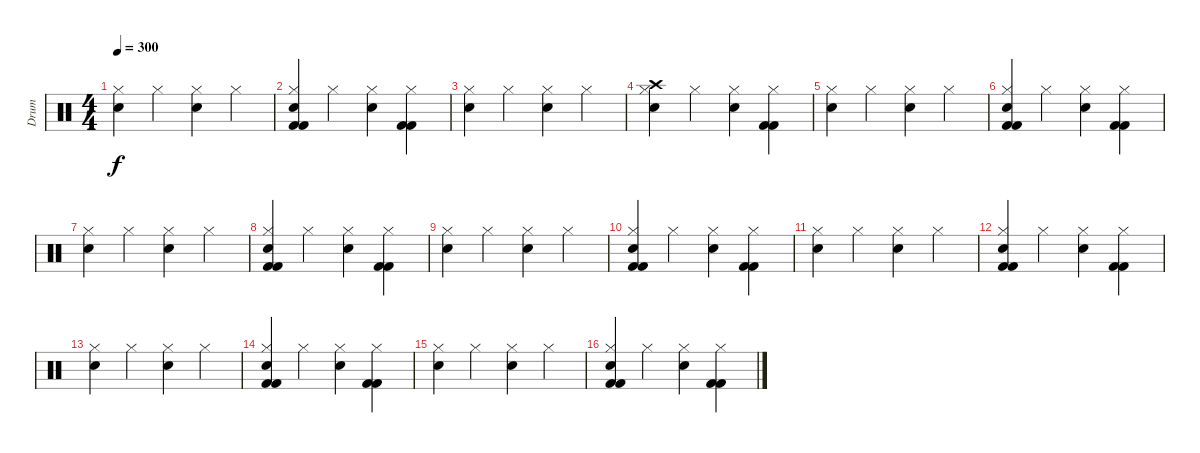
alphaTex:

\track ("Drum" "Drum") {instrument percussion}
\staff {score}
\articulation defaults
\ts (4 4)
\tempo 300
\clef neutral
\ks c
("Electric Snare (hit)" "Hi-Hat (closed)").4{dy f} "Hi-Hat (closed)".4 ("Electric Snare (hit)" "Hi-Hat (closed)").4 "Hi-Hat (closed)".4 |
("Electric Snare (hit)" "Hi-Hat (closed)" "Kick (hit) 2" "Kick (hit) 2").4 "Hi-Hat (closed)".4 ("Electric Snare (hit)" "Hi-Hat (closed)").4 ("Hi-Hat (closed)" "Kick (hit) 2" "Kick (hit) 2").4 |
("Electric Snare (hit)" "Hi-Hat (closed)").4 "Hi-Hat (closed)".4 ("Electric Snare (hit)" "Hi-Hat (closed)").4 "Hi-Hat (closed)".4 |
("Crash high (hit)" "Electric Snare (hit)" "Hi-Hat (closed)").4 "Hi-Hat (closed)".4 ("Electric Snare (hit)" "Hi-Hat (closed)").4 ("Hi-Hat (closed)" "Kick (hit) 2" "Kick (hit) 2").4 |
("Electric Snare (hit)" "Hi-Hat (closed)").4 "Hi-Hat (closed)".4 ("Electric Snare (hit)" "Hi-Hat (closed)").4 "Hi-Hat (closed)".4 |
("Electric Snare (hit)" "Hi-Hat (closed)" "Kick (hit) 2" "Kick (hit) 2").4 "Hi-Hat (closed)".4 ("Electric Snare (hit)" "Hi-Hat (closed)").4 ("Hi-Hat (closed)" "Kick (hit) 2" "Kick (hit) 2").4 |
("Electric Snare (hit)" "Hi-Hat (closed)").4 "Hi-Hat (closed)".4 ("Electric Snare (hit)" "Hi-Hat (closed)").4 "Hi-Hat (closed)".4 |
("Electric Snare (hit)" "Hi-Hat (closed)" "Kick (hit) 2" "Kick (hit) 2").4 "Hi-Hat (closed)".4 ("Electric Snare (hit)" "Hi-Hat (closed)").4 ("Hi-Hat (closed)" "Kick (hit) 2" "Kick (hit) 2").4 |
("Electric Snare (hit)" "Hi-Hat (closed)").4 "Hi-Hat (closed)".4 ("Electric Snare (hit)" "Hi-Hat (closed)").4 "Hi-Hat (closed)".4 |
("Electric Snare (hit)" "Hi-Hat (closed)" "Kick (hit) 2" "Kick (hit) 2").4 "Hi-Hat (closed)".4 ("Electric Snare (hit)" "Hi-Hat (closed)").4 ("Hi-Hat (closed)" "Kick (hit) 2" "Kick (hit) 2").4 |
("Electric Snare (hit)" "Hi-Hat (closed)").4 "Hi-Hat (closed)".4 ("Electric Snare (hit)" "Hi-Hat (closed)").4 "Hi-Hat (closed)".4 |
("Electric Snare (hit)" "Hi-Hat (closed)" "Kick (hit) 2" "Kick (hit) 2").4 "Hi-Hat (closed)".4 ("Electric Snare (hit)" "Hi-Hat (closed)").4 ("Hi-Hat (closed)" "Kick (hit) 2" "Kick (hit) 2").4 |
("Electric Snare (hit)" "Hi-Hat (closed)").4 "Hi-Hat (closed)".4 ("Electric Snare (hit)" "Hi-Hat (closed)").4 "Hi-Hat (closed)".4 |
("Electric Snare (hit)" "Hi-Hat (closed)" "Kick (hit) 2" "Kick (hit) 2").4 "Hi-Hat (closed)".4 ("Electric Snare (hit)" "Hi-Hat (closed)").4 ("Hi-Hat (closed)" "Kick (hit) 2" "Kick (hit) 2").4 |
("Electric Snare (hit)" "Hi-Hat (closed)").4 "Hi-Hat (closed)".4 ("Electric Snare (hit)" "Hi-Hat (closed)").4 "Hi-Hat (closed)".4 |
("Electric Snare (hit)" "Hi-Hat (closed)" "Kick (hit) 2" "Kick (hit) 2").4 "Hi-Hat (closed)".4 ("Electric Snare (hit)" "Hi-Hat (closed)").4 ("Hi-Hat (closed)" "Kick (hit) 2" "Kick (hit) 2").4
